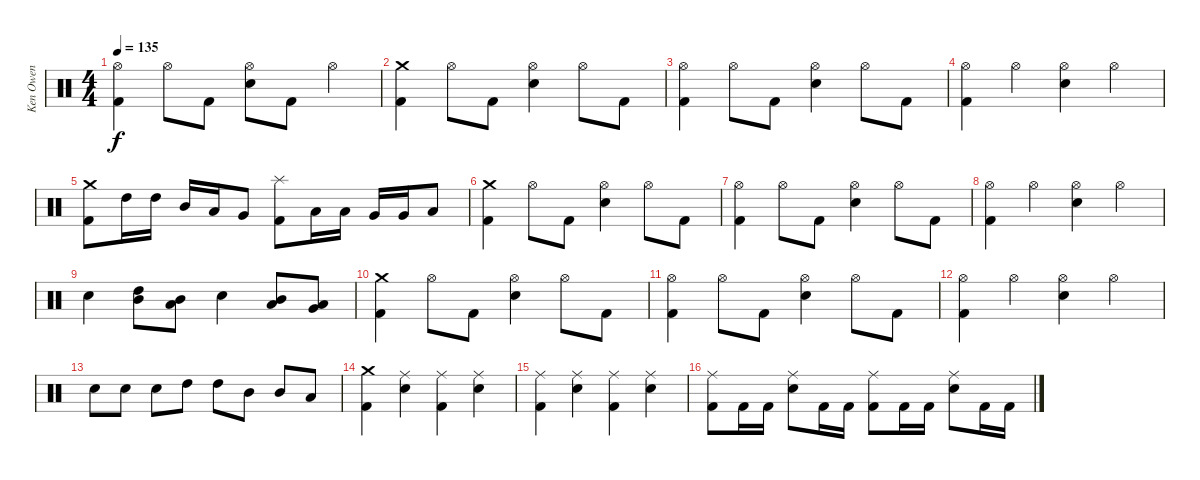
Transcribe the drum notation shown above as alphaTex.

\track ("Ken Owen" "Ken Owen") {instrument percussion}
\staff {score}
\articulation defaults
\ts (4 4)
\tempo 135
\clef neutral
\ks c
("Hi-Hat (open)" "Kick (hit) 2").4{dy f} "Hi-Hat (open)".8 "Kick (hit) 2".8 ("Hi-Hat (open)" "Electric Snare (hit)").8 "Kick (hit) 2".8 "Hi-Hat (open)".4 |
("Crash medium (hit)" "Kick (hit) 2").4 "Hi-Hat (open)".8 "Kick (hit) 2".8 ("Hi-Hat (open)" "Electric Snare (hit)").4 "Hi-Hat (open)".8 "Kick (hit) 2".8 |
("Hi-Hat (open)" "Kick (hit) 2").4 "Hi-Hat (open)".8 "Kick (hit) 2".8 ("Hi-Hat (open)" "Electric Snare (hit)").4 "Hi-Hat (open)".8 "Kick (hit) 2".8 |
("Hi-Hat (open)" "Kick (hit) 2").4 "Hi-Hat (open)".4 ("Hi-Hat (open)" "Electric Snare (hit)").4 "Hi-Hat (open)".4 |
("Crash medium (hit)" "Kick (hit) 2").8 "High Tom (hit)".16 "High Tom (hit)".16 "Mid Tom (hit)".16 "Low Tom (hit)".16 "Very Low Tom (hit)".8 ("Splash (hit)" "Kick (hit) 2").8 "Low Tom (hit)".16 "Low Tom (hit)".16 "Very Low Tom (hit)".16 "Very Low Tom (hit)".16 "Low Floor Tom (hit)".8 |
("Crash medium (hit)" "Kick (hit) 2").4 "Hi-Hat (open)".8 "Kick (hit) 2".8 ("Hi-Hat (open)" "Electric Snare (hit)").4 "Hi-Hat (open)".8 "Kick (hit) 2".8 |
("Hi-Hat (open)" "Kick (hit) 2").4 "Hi-Hat (open)".8 "Kick (hit) 2".8 ("Hi-Hat (open)" "Electric Snare (hit)").4 "Hi-Hat (open)".8 "Kick (hit) 2".8 |
("Hi-Hat (open)" "Kick (hit) 2").4 "Hi-Hat (open)".4 ("Hi-Hat (open)" "Electric Snare (hit)").4 "Hi-Hat (open)".4 |
"Electric Snare (hit)".4 ("High Tom (hit)" "Mid Tom (hit)").8 ("Mid Tom (hit)" "Low Tom (hit)").8 "Electric Snare (hit)".4 ("Mid Tom (hit)" "Low Tom (hit)").8 ("Low Tom (hit)" "Very Low Tom (hit)").8 |
("Crash medium (hit)" "Kick (hit) 2").4 "Hi-Hat (open)".8 "Kick (hit) 2".8 ("Hi-Hat (open)" "Electric Snare (hit)").4 "Hi-Hat (open)".8 "Kick (hit) 2".8 |
("Hi-Hat (open)" "Kick (hit) 2").4 "Hi-Hat (open)".8 "Kick (hit) 2".8 ("Hi-Hat (open)" "Electric Snare (hit)").4 "Hi-Hat (open)".8 "Kick (hit) 2".8 |
("Hi-Hat (open)" "Kick (hit) 2").4 "Hi-Hat (open)".4 ("Hi-Hat (open)" "Electric Snare (hit)").4 "Hi-Hat (open)".4 |
"Electric Snare (hit)".8 "Electric Snare (hit)".8 "Electric Snare (hit)".8 "High Tom (hit)".8 "High Tom (hit)".8 "Mid Tom (hit)".8 "Mid Tom (hit)".8 "Low Tom (hit)".8 |
("Crash medium (hit)" "Kick (hit) 2").4 ("Ride (middle)" "Electric Snare (hit)").4 ("Ride (middle)" "Kick (hit) 2").4 ("Ride (middle)" "Electric Snare (hit)").4 |
("Ride (middle)" "Kick (hit) 2").4 ("Ride (middle)" "Electric Snare (hit)").4 ("Ride (middle)" "Kick (hit) 2").4 ("Ride (middle)" "Electric Snare (hit)").4 |
("Ride (middle)" "Kick (hit) 2").8 "Kick (hit) 2".16 "Kick (hit) 2".16 ("Ride (middle)" "Electric Snare (hit)").8 "Kick (hit) 2".16 "Kick (hit) 2".16 ("Ride (middle)" "Kick (hit) 2").8 "Kick (hit) 2".16 "Kick (hit) 2".16 ("Ride (middle)" "Electric Snare (hit)").8 "Kick (hit) 2".16 "Kick (hit) 2".16
